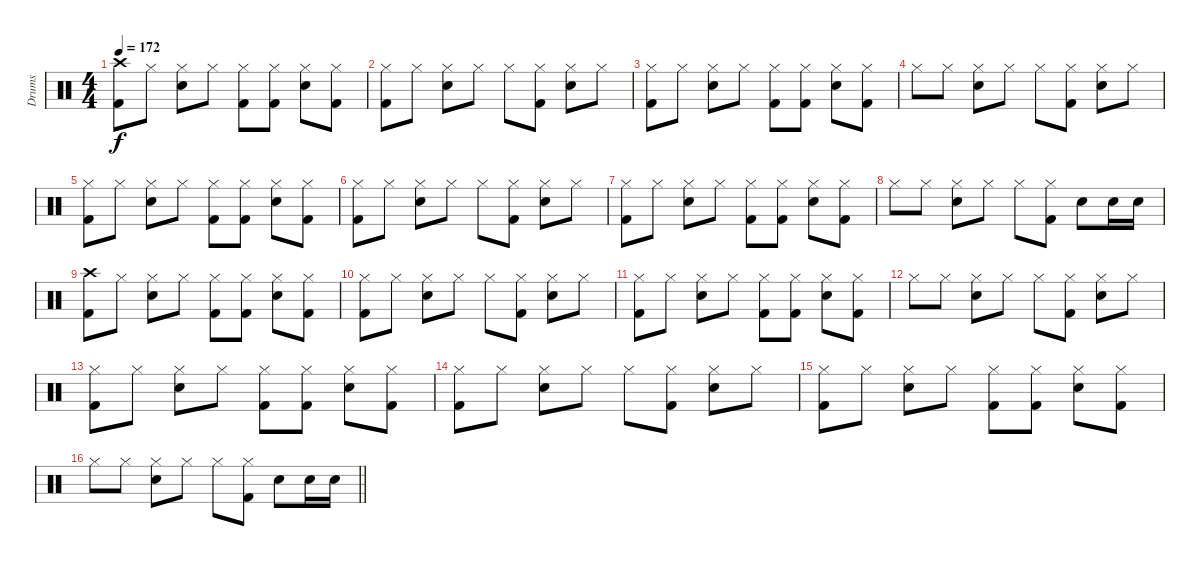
\track ("Drums" "Drums") {instrument percussion}
\staff {score}
\articulation defaults
\ts (4 4)
\tempo 172
\clef neutral
\ks c
("Crash high (hit)" "Kick (hit) 2").8{dy f} "Hi-Hat (closed)".8 ("Hi-Hat (closed)" "Electric Snare (hit)").8 "Hi-Hat (closed)".8 ("Hi-Hat (closed)" "Kick (hit) 2").8 ("Hi-Hat (closed)" "Kick (hit) 2").8 ("Hi-Hat (closed)" "Electric Snare (hit)").8 ("Hi-Hat (closed)" "Kick (hit) 2").8 |
("Hi-Hat (closed)" "Kick (hit) 2").8 "Hi-Hat (closed)".8 ("Hi-Hat (closed)" "Electric Snare (hit)").8 "Hi-Hat (closed)".8 "Hi-Hat (closed)".8 ("Hi-Hat (closed)" "Kick (hit) 2").8 ("Hi-Hat (closed)" "Electric Snare (hit)").8 "Hi-Hat (closed)".8 |
("Hi-Hat (closed)" "Kick (hit) 2").8 "Hi-Hat (closed)".8 ("Hi-Hat (closed)" "Electric Snare (hit)").8 "Hi-Hat (closed)".8 ("Hi-Hat (closed)" "Kick (hit) 2").8 ("Hi-Hat (closed)" "Kick (hit) 2").8 ("Hi-Hat (closed)" "Electric Snare (hit)").8 ("Hi-Hat (closed)" "Kick (hit) 2").8 |
"Hi-Hat (closed)".8 "Hi-Hat (closed)".8 ("Hi-Hat (closed)" "Electric Snare (hit)").8 "Hi-Hat (closed)".8 "Hi-Hat (closed)".8 ("Hi-Hat (closed)" "Kick (hit) 2").8 ("Hi-Hat (closed)" "Electric Snare (hit)").8 "Hi-Hat (closed)".8 |
("Hi-Hat (closed)" "Kick (hit) 2").8 "Hi-Hat (closed)".8 ("Hi-Hat (closed)" "Electric Snare (hit)").8 "Hi-Hat (closed)".8 ("Hi-Hat (closed)" "Kick (hit) 2").8 ("Hi-Hat (closed)" "Kick (hit) 2").8 ("Hi-Hat (closed)" "Electric Snare (hit)").8 ("Hi-Hat (closed)" "Kick (hit) 2").8 |
("Hi-Hat (closed)" "Kick (hit) 2").8 "Hi-Hat (closed)".8 ("Hi-Hat (closed)" "Electric Snare (hit)").8 "Hi-Hat (closed)".8 "Hi-Hat (closed)".8 ("Hi-Hat (closed)" "Kick (hit) 2").8 ("Hi-Hat (closed)" "Electric Snare (hit)").8 "Hi-Hat (closed)".8 |
("Hi-Hat (closed)" "Kick (hit) 2").8 "Hi-Hat (closed)".8 ("Hi-Hat (closed)" "Electric Snare (hit)").8 "Hi-Hat (closed)".8 ("Hi-Hat (closed)" "Kick (hit) 2").8 ("Hi-Hat (closed)" "Kick (hit) 2").8 ("Hi-Hat (closed)" "Electric Snare (hit)").8 ("Hi-Hat (closed)" "Kick (hit) 2").8 |
"Hi-Hat (closed)".8 "Hi-Hat (closed)".8 ("Hi-Hat (closed)" "Electric Snare (hit)").8 "Hi-Hat (closed)".8 "Hi-Hat (closed)".8 ("Hi-Hat (closed)" "Kick (hit) 2").8 "Electric Snare (hit)".8 "Electric Snare (hit)".16 "Electric Snare (hit)".16 |
("Crash high (hit)" "Kick (hit) 2").8 "Hi-Hat (closed)".8 ("Hi-Hat (closed)" "Electric Snare (hit)").8 "Hi-Hat (closed)".8 ("Hi-Hat (closed)" "Kick (hit) 2").8 ("Hi-Hat (closed)" "Kick (hit) 2").8 ("Hi-Hat (closed)" "Electric Snare (hit)").8 ("Hi-Hat (closed)" "Kick (hit) 2").8 |
("Hi-Hat (closed)" "Kick (hit) 2").8 "Hi-Hat (closed)".8 ("Hi-Hat (closed)" "Electric Snare (hit)").8 "Hi-Hat (closed)".8 "Hi-Hat (closed)".8 ("Hi-Hat (closed)" "Kick (hit) 2").8 ("Hi-Hat (closed)" "Electric Snare (hit)").8 "Hi-Hat (closed)".8 |
("Hi-Hat (closed)" "Kick (hit) 2").8 "Hi-Hat (closed)".8 ("Hi-Hat (closed)" "Electric Snare (hit)").8 "Hi-Hat (closed)".8 ("Hi-Hat (closed)" "Kick (hit) 2").8 ("Hi-Hat (closed)" "Kick (hit) 2").8 ("Hi-Hat (closed)" "Electric Snare (hit)").8 ("Hi-Hat (closed)" "Kick (hit) 2").8 |
"Hi-Hat (closed)".8 "Hi-Hat (closed)".8 ("Hi-Hat (closed)" "Electric Snare (hit)").8 "Hi-Hat (closed)".8 "Hi-Hat (closed)".8 ("Hi-Hat (closed)" "Kick (hit) 2").8 ("Hi-Hat (closed)" "Electric Snare (hit)").8 "Hi-Hat (closed)".8 |
("Hi-Hat (closed)" "Kick (hit) 2").8 "Hi-Hat (closed)".8 ("Hi-Hat (closed)" "Electric Snare (hit)").8 "Hi-Hat (closed)".8 ("Hi-Hat (closed)" "Kick (hit) 2").8 ("Hi-Hat (closed)" "Kick (hit) 2").8 ("Hi-Hat (closed)" "Electric Snare (hit)").8 ("Hi-Hat (closed)" "Kick (hit) 2").8 |
("Hi-Hat (closed)" "Kick (hit) 2").8 "Hi-Hat (closed)".8 ("Hi-Hat (closed)" "Electric Snare (hit)").8 "Hi-Hat (closed)".8 "Hi-Hat (closed)".8 ("Hi-Hat (closed)" "Kick (hit) 2").8 ("Hi-Hat (closed)" "Electric Snare (hit)").8 "Hi-Hat (closed)".8 |
("Hi-Hat (closed)" "Kick (hit) 2").8 "Hi-Hat (closed)".8 ("Hi-Hat (closed)" "Electric Snare (hit)").8 "Hi-Hat (closed)".8 ("Hi-Hat (closed)" "Kick (hit) 2").8 ("Hi-Hat (closed)" "Kick (hit) 2").8 ("Hi-Hat (closed)" "Electric Snare (hit)").8 ("Hi-Hat (closed)" "Kick (hit) 2").8 |
\barLineRight lightlight "Hi-Hat (closed)".8 "Hi-Hat (closed)".8
("Hi-Hat (closed)" "Electric Snare (hit)").8 "Hi-Hat (closed)".8 "Hi-Hat (closed)".8 ("Hi-Hat (closed)" "Kick (hit) 2").8 "Electric Snare (hit)".8 "Electric Snare (hit)".16 "Electric Snare (hit)".16
